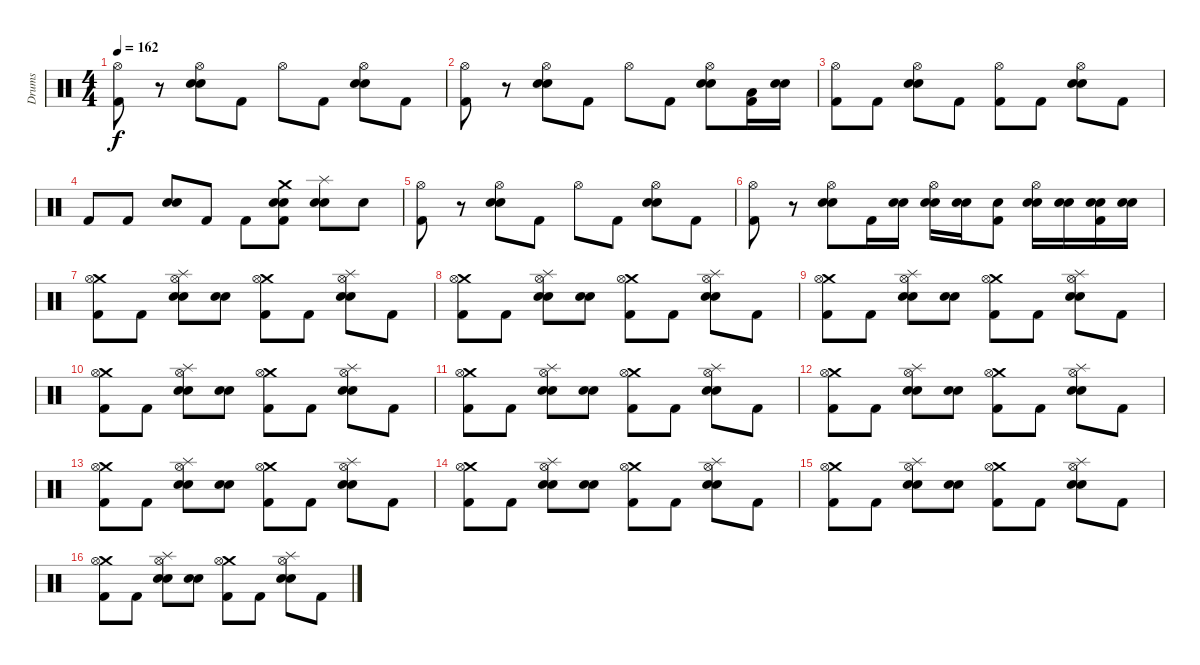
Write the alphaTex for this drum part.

\track ("Drums" "Drums") {instrument percussion}
\staff {score}
\articulation defaults
\ts (4 4)
\tempo 162
\clef neutral
\ks c
("Hi-Hat (open)" "Kick (hit) 2").8{dy f} r.8 ("Hi-Hat (open)" "Electric Snare (hit)" "Snare (hit) 2").8 "Kick (hit) 2".8 "Hi-Hat (open)".8 "Kick (hit) 2".8 ("Hi-Hat (open)" "Electric Snare (hit)" "Snare (hit) 2").8 "Kick (hit) 2".8 |
("Hi-Hat (open)" "Kick (hit) 2").8 r.8 ("Hi-Hat (open)" "Electric Snare (hit)" "Snare (hit) 2").8 "Kick (hit) 2".8 "Hi-Hat (open)".8 "Kick (hit) 2".8 ("Hi-Hat (open)" "Electric Snare (hit)" "Snare (hit) 2").8 ("Kick (hit) 2" "Low Floor Tom (hit)").16 ("Electric Snare (hit)" "Snare (hit) 2").16 |
("Kick (hit) 2" "Hi-Hat (open)").8 "Kick (hit) 2".8 ("Snare (hit) 2" "Electric Snare (hit)" "Hi-Hat (open)").8 "Kick (hit) 2".8 ("Kick (hit) 2" "Hi-Hat (open)").8 "Kick (hit) 2".8 ("Electric Snare (hit)" "Snare (hit) 2" "Hi-Hat (open)").8 "Kick (hit) 2".8 |
"Kick (hit) 2".8 "Kick (hit) 2".8 ("Electric Snare (hit)" "Snare (hit) 2").8 "Kick (hit) 2".8 "Kick (hit) 2".8 ("Electric Snare (hit)" "Snare (hit) 2" "Crash medium (hit)" "Kick (hit) 2").8 ("Splash (hit)" "Electric Snare (hit)" "Snare (hit) 2").8 "Snare (hit) 2".8 |
("Hi-Hat (open)" "Kick (hit) 2").8 r.8 ("Hi-Hat (open)" "Electric Snare (hit)" "Snare (hit) 2").8 "Kick (hit) 2".8 "Hi-Hat (open)".8 "Kick (hit) 2".8 ("Hi-Hat (open)" "Electric Snare (hit)" "Snare (hit) 2").8 "Kick (hit) 2".8 |
("Hi-Hat (open)" "Kick (hit) 2").8 r.8 ("Hi-Hat (open)" "Electric Snare (hit)" "Snare (hit) 2").8 "Kick (hit) 2".16 ("Electric Snare (hit)" "Snare (hit) 2").16 ("Hi-Hat (open)" "Electric Snare (hit)" "Snare (hit) 2").16 ("Electric Snare (hit)" "Snare (hit) 2").16 ("Kick (hit) 2" "Snare (hit) 2").8 ("Hi-Hat (open)" "Electric Snare (hit)" "Snare (hit) 2").16 ("Electric Snare (hit)" "Snare (hit) 2").16 ("Kick (hit) 2" "Electric Snare (hit)" "Snare (hit) 2").16 ("Electric Snare (hit)" "Snare (hit) 2").16 |
("Kick (hit) 2" "Crash medium (hit)" "Hi-Hat (open)").8 "Kick (hit) 2".8 ("Electric Snare (hit)" "Snare (hit) 2" "Splash (hit)" "Hi-Hat (open)").8 ("Electric Snare (hit)" "Snare (hit) 2").8 ("Kick (hit) 2" "Crash medium (hit)" "Hi-Hat (open)").8 "Kick (hit) 2".8 ("Electric Snare (hit)" "Snare (hit) 2" "Splash (hit)" "Hi-Hat (open)").8 "Kick (hit) 2".8 |
("Kick (hit) 2" "Crash medium (hit)" "Hi-Hat (open)").8 "Kick (hit) 2".8 ("Electric Snare (hit)" "Snare (hit) 2" "Splash (hit)" "Hi-Hat (open)").8 ("Electric Snare (hit)" "Snare (hit) 2").8 ("Kick (hit) 2" "Crash medium (hit)" "Hi-Hat (open)").8 "Kick (hit) 2".8 ("Electric Snare (hit)" "Snare (hit) 2" "Splash (hit)" "Hi-Hat (open)").8 "Kick (hit) 2".8 |
("Kick (hit) 2" "Crash medium (hit)" "Hi-Hat (open)").8 "Kick (hit) 2".8 ("Electric Snare (hit)" "Snare (hit) 2" "Splash (hit)" "Hi-Hat (open)").8 ("Electric Snare (hit)" "Snare (hit) 2").8 ("Kick (hit) 2" "Crash medium (hit)" "Hi-Hat (open)").8 "Kick (hit) 2".8 ("Electric Snare (hit)" "Snare (hit) 2" "Splash (hit)" "Hi-Hat (open)").8 "Kick (hit) 2".8 |
("Kick (hit) 2" "Crash medium (hit)" "Hi-Hat (open)").8 "Kick (hit) 2".8 ("Electric Snare (hit)" "Snare (hit) 2" "Splash (hit)" "Hi-Hat (open)").8 ("Electric Snare (hit)" "Snare (hit) 2").8 ("Kick (hit) 2" "Crash medium (hit)" "Hi-Hat (open)").8 "Kick (hit) 2".8 ("Electric Snare (hit)" "Snare (hit) 2" "Splash (hit)" "Hi-Hat (open)").8 "Kick (hit) 2".8 |
("Kick (hit) 2" "Crash medium (hit)" "Hi-Hat (open)").8 "Kick (hit) 2".8 ("Electric Snare (hit)" "Snare (hit) 2" "Splash (hit)" "Hi-Hat (open)").8 ("Electric Snare (hit)" "Snare (hit) 2").8 ("Kick (hit) 2" "Crash medium (hit)" "Hi-Hat (open)").8 "Kick (hit) 2".8 ("Electric Snare (hit)" "Snare (hit) 2" "Splash (hit)" "Hi-Hat (open)").8 "Kick (hit) 2".8 |
("Kick (hit) 2" "Crash medium (hit)" "Hi-Hat (open)").8 "Kick (hit) 2".8 ("Electric Snare (hit)" "Snare (hit) 2" "Splash (hit)" "Hi-Hat (open)").8 ("Electric Snare (hit)" "Snare (hit) 2").8 ("Kick (hit) 2" "Crash medium (hit)" "Hi-Hat (open)").8 "Kick (hit) 2".8 ("Electric Snare (hit)" "Snare (hit) 2" "Splash (hit)" "Hi-Hat (open)").8 "Kick (hit) 2".8 |
("Kick (hit) 2" "Crash medium (hit)" "Hi-Hat (open)").8 "Kick (hit) 2".8 ("Electric Snare (hit)" "Snare (hit) 2" "Splash (hit)" "Hi-Hat (open)").8 ("Electric Snare (hit)" "Snare (hit) 2").8 ("Kick (hit) 2" "Crash medium (hit)" "Hi-Hat (open)").8 "Kick (hit) 2".8 ("Electric Snare (hit)" "Snare (hit) 2" "Splash (hit)" "Hi-Hat (open)").8 "Kick (hit) 2".8 |
("Kick (hit) 2" "Crash medium (hit)" "Hi-Hat (open)").8 "Kick (hit) 2".8 ("Electric Snare (hit)" "Snare (hit) 2" "Splash (hit)" "Hi-Hat (open)").8 ("Electric Snare (hit)" "Snare (hit) 2").8 ("Kick (hit) 2" "Crash medium (hit)" "Hi-Hat (open)").8 "Kick (hit) 2".8 ("Electric Snare (hit)" "Snare (hit) 2" "Splash (hit)" "Hi-Hat (open)").8 "Kick (hit) 2".8 |
("Kick (hit) 2" "Crash medium (hit)" "Hi-Hat (open)").8 "Kick (hit) 2".8 ("Electric Snare (hit)" "Snare (hit) 2" "Splash (hit)" "Hi-Hat (open)").8 ("Electric Snare (hit)" "Snare (hit) 2").8 ("Kick (hit) 2" "Crash medium (hit)" "Hi-Hat (open)").8 "Kick (hit) 2".8 ("Electric Snare (hit)" "Snare (hit) 2" "Splash (hit)" "Hi-Hat (open)").8 "Kick (hit) 2".8 |
("Kick (hit) 2" "Crash medium (hit)" "Hi-Hat (open)").8 "Kick (hit) 2".8 ("Electric Snare (hit)" "Snare (hit) 2" "Splash (hit)" "Hi-Hat (open)").8 ("Electric Snare (hit)" "Snare (hit) 2").8 ("Kick (hit) 2" "Crash medium (hit)" "Hi-Hat (open)").8 "Kick (hit) 2".8 ("Electric Snare (hit)" "Snare (hit) 2" "Splash (hit)" "Hi-Hat (open)").8 "Kick (hit) 2".8
